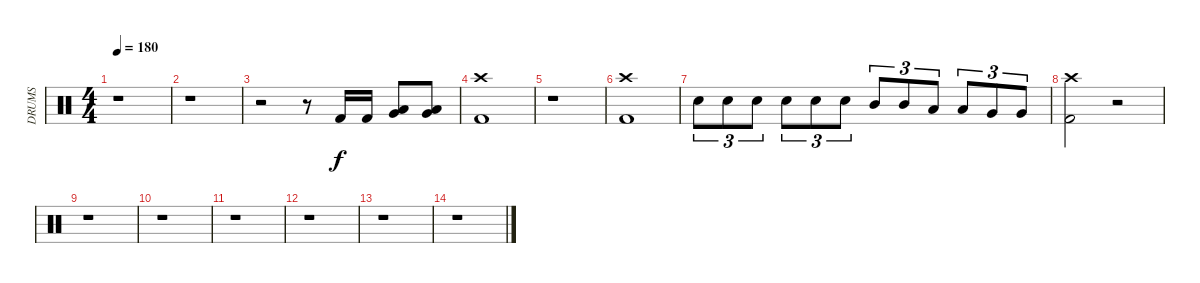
\track ("DRUMS" "DRUMS") {instrument percussion}
\staff {score}
\articulation defaults
\ts (4 4)
\tempo 180
\clef neutral
\ks c
r.1{dy f} |
r.1 |
r.2 r.8 "Kick (hit) 2".16 "Kick (hit) 2".16 ("Low Tom (hit)" "Very Low Tom (hit)").8 ("Low Tom (hit)" "Very Low Tom (hit)").8 |
("Crash high (hit)" "Kick (hit) 2").1 |
r.1 |
("Crash high (hit)" "Kick (hit) 2").1 |
"Electric Snare (hit)".8{tu (3 2)} "Electric Snare (hit)".8{tu (3 2)} "Electric Snare (hit)".8{tu (3 2)} "Electric Snare (hit)".8{tu (3 2)} "Electric Snare (hit)".8{tu (3 2)} "Electric Snare (hit)".8{tu (3 2)} "Mid Tom (hit)".8{tu (3 2)} "Mid Tom (hit)".8{tu (3 2)} "Low Tom (hit)".8{tu (3 2)} "Low Tom (hit)".8{tu (3 2)} "Very Low Tom (hit)".8{tu (3 2)} "Very Low Tom (hit)".8{tu (3 2)} |
("Crash high (hit)" "Kick (hit) 2").2 r.2 |
r.1 |
r.1 |
r.1 |
r.1 |
r.1 |
r.1
